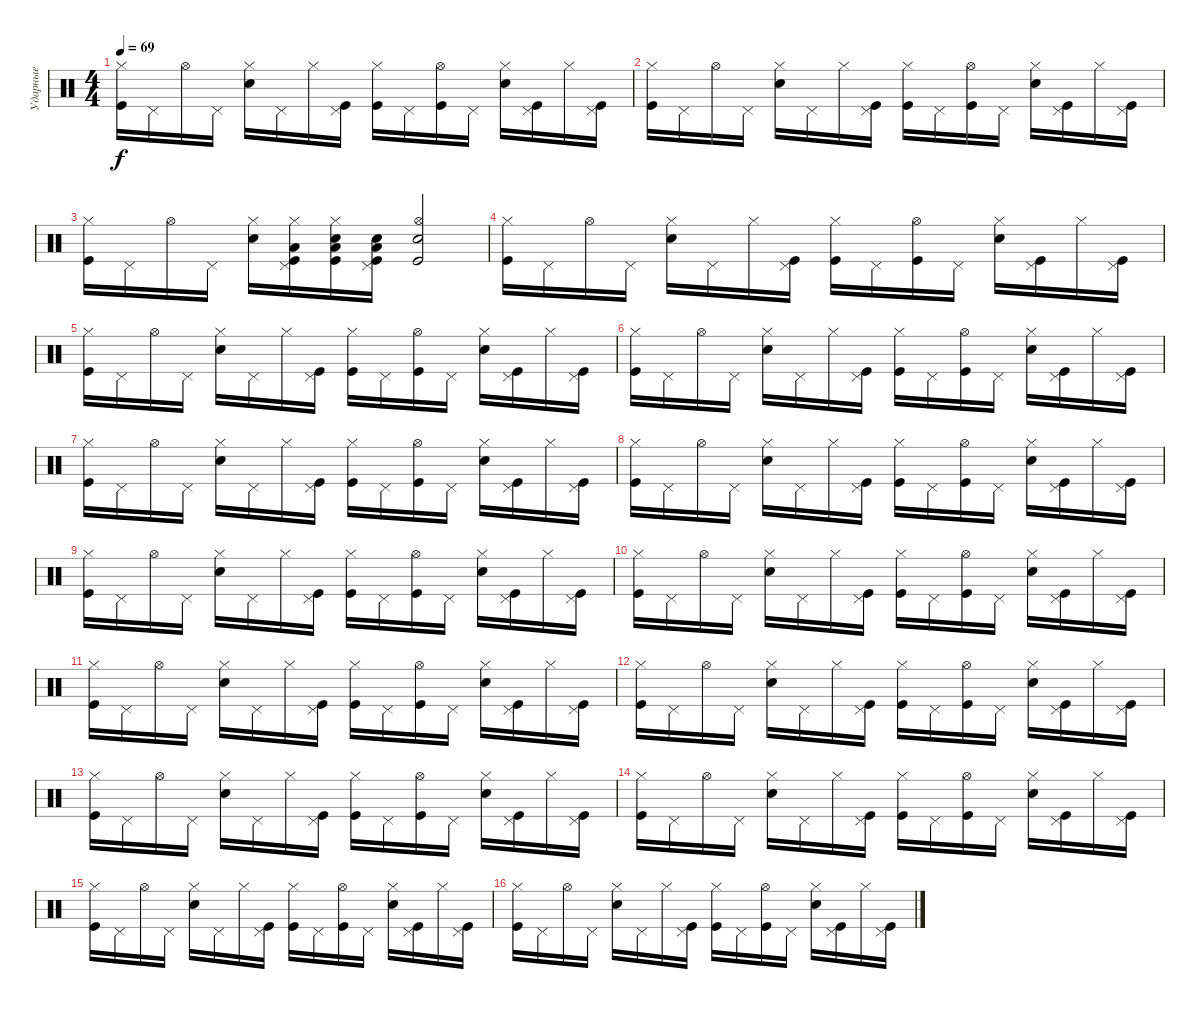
\track ("Ударные" "Ударные") {instrument percussion}
\staff {score}
\articulation defaults
\ts (4 4)
\tempo 69
\clef neutral
\ks c
("Kick (hit)" "Hi-Hat (closed)").16{dy f} "Pedal Hi-Hat (hit)".16 "Hi-Hat (open)".16 "Pedal Hi-Hat (hit)".16 ("Snare (hit) 2" "Hi-Hat (closed)").16 "Pedal Hi-Hat (hit)".16 "Hi-Hat (closed)".16 ("Pedal Hi-Hat (hit)" "Kick (hit)").16 ("Kick (hit)" "Hi-Hat (closed)").16 "Pedal Hi-Hat (hit)".16 ("Kick (hit)" "Hi-Hat (open)").16 "Pedal Hi-Hat (hit)".16 ("Snare (hit) 2" "Hi-Hat (closed)").16 ("Pedal Hi-Hat (hit)" "Kick (hit)").16 "Hi-Hat (closed)".16 ("Pedal Hi-Hat (hit)" "Kick (hit)").16 |
("Kick (hit)" "Hi-Hat (closed)").16 "Pedal Hi-Hat (hit)".16 "Hi-Hat (open)".16 "Pedal Hi-Hat (hit)".16 ("Snare (hit) 2" "Hi-Hat (closed)").16 "Pedal Hi-Hat (hit)".16 "Hi-Hat (closed)".16 ("Pedal Hi-Hat (hit)" "Kick (hit)").16 ("Kick (hit)" "Hi-Hat (closed)").16 "Pedal Hi-Hat (hit)".16 ("Kick (hit)" "Hi-Hat (open)").16 "Pedal Hi-Hat (hit)".16 ("Snare (hit) 2" "Hi-Hat (closed)").16 ("Pedal Hi-Hat (hit)" "Kick (hit)").16 "Hi-Hat (closed)".16 ("Pedal Hi-Hat (hit)" "Kick (hit)").16 |
("Kick (hit)" "Hi-Hat (closed)").16 "Pedal Hi-Hat (hit)".16 "Hi-Hat (open)".16 "Pedal Hi-Hat (hit)".16 ("Hi-Hat (closed)" "Snare (hit) 2").16 ("Hi-Hat (closed)" "Kick (hit)" "Pedal Hi-Hat (hit)" "Low Floor Tom (hit)").16 ("Hi-Hat (closed)" "Snare (hit) 2" "Low Floor Tom (hit)" "Kick (hit)").16 ("Pedal Hi-Hat (hit)" "Kick (hit)" "Snare (hit) 2" "Low Floor Tom (hit)").16 ("Hi-Hat (open)" "Snare (hit) 2" "Kick (hit)").2 |
("Kick (hit)" "Hi-Hat (closed)").16 "Pedal Hi-Hat (hit)".16 "Hi-Hat (open)".16 "Pedal Hi-Hat (hit)".16 ("Snare (hit) 2" "Hi-Hat (closed)").16 "Pedal Hi-Hat (hit)".16 "Hi-Hat (closed)".16 ("Pedal Hi-Hat (hit)" "Kick (hit)").16 ("Kick (hit)" "Hi-Hat (closed)").16 "Pedal Hi-Hat (hit)".16 ("Kick (hit)" "Hi-Hat (open)").16 "Pedal Hi-Hat (hit)".16 ("Snare (hit) 2" "Hi-Hat (closed)").16 ("Pedal Hi-Hat (hit)" "Kick (hit)").16 "Hi-Hat (closed)".16 ("Pedal Hi-Hat (hit)" "Kick (hit)").16 |
("Kick (hit)" "Hi-Hat (closed)").16 "Pedal Hi-Hat (hit)".16 "Hi-Hat (open)".16 "Pedal Hi-Hat (hit)".16 ("Snare (hit) 2" "Hi-Hat (closed)").16 "Pedal Hi-Hat (hit)".16 "Hi-Hat (closed)".16 ("Pedal Hi-Hat (hit)" "Kick (hit)").16 ("Kick (hit)" "Hi-Hat (closed)").16 "Pedal Hi-Hat (hit)".16 ("Kick (hit)" "Hi-Hat (open)").16 "Pedal Hi-Hat (hit)".16 ("Snare (hit) 2" "Hi-Hat (closed)").16 ("Pedal Hi-Hat (hit)" "Kick (hit)").16 "Hi-Hat (closed)".16 ("Pedal Hi-Hat (hit)" "Kick (hit)").16 |
("Kick (hit)" "Hi-Hat (closed)").16 "Pedal Hi-Hat (hit)".16 "Hi-Hat (open)".16 "Pedal Hi-Hat (hit)".16 ("Snare (hit) 2" "Hi-Hat (closed)").16 "Pedal Hi-Hat (hit)".16 "Hi-Hat (closed)".16 ("Pedal Hi-Hat (hit)" "Kick (hit)").16 ("Kick (hit)" "Hi-Hat (closed)").16 "Pedal Hi-Hat (hit)".16 ("Kick (hit)" "Hi-Hat (open)").16 "Pedal Hi-Hat (hit)".16 ("Snare (hit) 2" "Hi-Hat (closed)").16 ("Pedal Hi-Hat (hit)" "Kick (hit)").16 "Hi-Hat (closed)".16 ("Pedal Hi-Hat (hit)" "Kick (hit)").16 |
("Kick (hit)" "Hi-Hat (closed)").16 "Pedal Hi-Hat (hit)".16 "Hi-Hat (open)".16 "Pedal Hi-Hat (hit)".16 ("Snare (hit) 2" "Hi-Hat (closed)").16 "Pedal Hi-Hat (hit)".16 "Hi-Hat (closed)".16 ("Pedal Hi-Hat (hit)" "Kick (hit)").16 ("Kick (hit)" "Hi-Hat (closed)").16 "Pedal Hi-Hat (hit)".16 ("Kick (hit)" "Hi-Hat (open)").16 "Pedal Hi-Hat (hit)".16 ("Snare (hit) 2" "Hi-Hat (closed)").16 ("Pedal Hi-Hat (hit)" "Kick (hit)").16 "Hi-Hat (closed)".16 ("Pedal Hi-Hat (hit)" "Kick (hit)").16 |
("Kick (hit)" "Hi-Hat (closed)").16 "Pedal Hi-Hat (hit)".16 "Hi-Hat (open)".16 "Pedal Hi-Hat (hit)".16 ("Snare (hit) 2" "Hi-Hat (closed)").16 "Pedal Hi-Hat (hit)".16 "Hi-Hat (closed)".16 ("Pedal Hi-Hat (hit)" "Kick (hit)").16 ("Kick (hit)" "Hi-Hat (closed)").16 "Pedal Hi-Hat (hit)".16 ("Kick (hit)" "Hi-Hat (open)").16 "Pedal Hi-Hat (hit)".16 ("Snare (hit) 2" "Hi-Hat (closed)").16 ("Pedal Hi-Hat (hit)" "Kick (hit)").16 "Hi-Hat (closed)".16 ("Pedal Hi-Hat (hit)" "Kick (hit)").16 |
("Kick (hit)" "Hi-Hat (closed)").16 "Pedal Hi-Hat (hit)".16 "Hi-Hat (open)".16 "Pedal Hi-Hat (hit)".16 ("Snare (hit) 2" "Hi-Hat (closed)").16 "Pedal Hi-Hat (hit)".16 "Hi-Hat (closed)".16 ("Pedal Hi-Hat (hit)" "Kick (hit)").16 ("Kick (hit)" "Hi-Hat (closed)").16 "Pedal Hi-Hat (hit)".16 ("Kick (hit)" "Hi-Hat (open)").16 "Pedal Hi-Hat (hit)".16 ("Snare (hit) 2" "Hi-Hat (closed)").16 ("Pedal Hi-Hat (hit)" "Kick (hit)").16 "Hi-Hat (closed)".16 ("Pedal Hi-Hat (hit)" "Kick (hit)").16 |
("Kick (hit)" "Hi-Hat (closed)").16 "Pedal Hi-Hat (hit)".16 "Hi-Hat (open)".16 "Pedal Hi-Hat (hit)".16 ("Snare (hit) 2" "Hi-Hat (closed)").16 "Pedal Hi-Hat (hit)".16 "Hi-Hat (closed)".16 ("Pedal Hi-Hat (hit)" "Kick (hit)").16 ("Kick (hit)" "Hi-Hat (closed)").16 "Pedal Hi-Hat (hit)".16 ("Kick (hit)" "Hi-Hat (open)").16 "Pedal Hi-Hat (hit)".16 ("Snare (hit) 2" "Hi-Hat (closed)").16 ("Pedal Hi-Hat (hit)" "Kick (hit)").16 "Hi-Hat (closed)".16 ("Pedal Hi-Hat (hit)" "Kick (hit)").16 |
("Kick (hit)" "Hi-Hat (closed)").16 "Pedal Hi-Hat (hit)".16 "Hi-Hat (open)".16 "Pedal Hi-Hat (hit)".16 ("Snare (hit) 2" "Hi-Hat (closed)").16 "Pedal Hi-Hat (hit)".16 "Hi-Hat (closed)".16 ("Pedal Hi-Hat (hit)" "Kick (hit)").16 ("Kick (hit)" "Hi-Hat (closed)").16 "Pedal Hi-Hat (hit)".16 ("Kick (hit)" "Hi-Hat (open)").16 "Pedal Hi-Hat (hit)".16 ("Snare (hit) 2" "Hi-Hat (closed)").16 ("Pedal Hi-Hat (hit)" "Kick (hit)").16 "Hi-Hat (closed)".16 ("Pedal Hi-Hat (hit)" "Kick (hit)").16 |
("Kick (hit)" "Hi-Hat (closed)").16 "Pedal Hi-Hat (hit)".16 "Hi-Hat (open)".16 "Pedal Hi-Hat (hit)".16 ("Snare (hit) 2" "Hi-Hat (closed)").16 "Pedal Hi-Hat (hit)".16 "Hi-Hat (closed)".16 ("Pedal Hi-Hat (hit)" "Kick (hit)").16 ("Kick (hit)" "Hi-Hat (closed)").16 "Pedal Hi-Hat (hit)".16 ("Kick (hit)" "Hi-Hat (open)").16 "Pedal Hi-Hat (hit)".16 ("Snare (hit) 2" "Hi-Hat (closed)").16 ("Pedal Hi-Hat (hit)" "Kick (hit)").16 "Hi-Hat (closed)".16 ("Pedal Hi-Hat (hit)" "Kick (hit)").16 |
("Kick (hit)" "Hi-Hat (closed)").16 "Pedal Hi-Hat (hit)".16 "Hi-Hat (open)".16 "Pedal Hi-Hat (hit)".16 ("Snare (hit) 2" "Hi-Hat (closed)").16 "Pedal Hi-Hat (hit)".16 "Hi-Hat (closed)".16 ("Pedal Hi-Hat (hit)" "Kick (hit)").16 ("Kick (hit)" "Hi-Hat (closed)").16 "Pedal Hi-Hat (hit)".16 ("Kick (hit)" "Hi-Hat (open)").16 "Pedal Hi-Hat (hit)".16 ("Snare (hit) 2" "Hi-Hat (closed)").16 ("Pedal Hi-Hat (hit)" "Kick (hit)").16 "Hi-Hat (closed)".16 ("Pedal Hi-Hat (hit)" "Kick (hit)").16 |
("Kick (hit)" "Hi-Hat (closed)").16 "Pedal Hi-Hat (hit)".16 "Hi-Hat (open)".16 "Pedal Hi-Hat (hit)".16 ("Snare (hit) 2" "Hi-Hat (closed)").16 "Pedal Hi-Hat (hit)".16 "Hi-Hat (closed)".16 ("Pedal Hi-Hat (hit)" "Kick (hit)").16 ("Kick (hit)" "Hi-Hat (closed)").16 "Pedal Hi-Hat (hit)".16 ("Kick (hit)" "Hi-Hat (open)").16 "Pedal Hi-Hat (hit)".16 ("Snare (hit) 2" "Hi-Hat (closed)").16 ("Pedal Hi-Hat (hit)" "Kick (hit)").16 "Hi-Hat (closed)".16 ("Pedal Hi-Hat (hit)" "Kick (hit)").16 |
("Kick (hit)" "Hi-Hat (closed)").16 "Pedal Hi-Hat (hit)".16 "Hi-Hat (open)".16 "Pedal Hi-Hat (hit)".16 ("Snare (hit) 2" "Hi-Hat (closed)").16 "Pedal Hi-Hat (hit)".16 "Hi-Hat (closed)".16 ("Pedal Hi-Hat (hit)" "Kick (hit)").16 ("Kick (hit)" "Hi-Hat (closed)").16 "Pedal Hi-Hat (hit)".16 ("Kick (hit)" "Hi-Hat (open)").16 "Pedal Hi-Hat (hit)".16 ("Snare (hit) 2" "Hi-Hat (closed)").16 ("Pedal Hi-Hat (hit)" "Kick (hit)").16 "Hi-Hat (closed)".16 ("Pedal Hi-Hat (hit)" "Kick (hit)").16 |
("Kick (hit)" "Hi-Hat (closed)").16 "Pedal Hi-Hat (hit)".16 "Hi-Hat (open)".16 "Pedal Hi-Hat (hit)".16 ("Snare (hit) 2" "Hi-Hat (closed)").16 "Pedal Hi-Hat (hit)".16 "Hi-Hat (closed)".16 ("Pedal Hi-Hat (hit)" "Kick (hit)").16 ("Kick (hit)" "Hi-Hat (closed)").16 "Pedal Hi-Hat (hit)".16 ("Kick (hit)" "Hi-Hat (open)").16 "Pedal Hi-Hat (hit)".16 ("Snare (hit) 2" "Hi-Hat (closed)").16 ("Pedal Hi-Hat (hit)" "Kick (hit)").16 "Hi-Hat (closed)".16 ("Pedal Hi-Hat (hit)" "Kick (hit)").16
